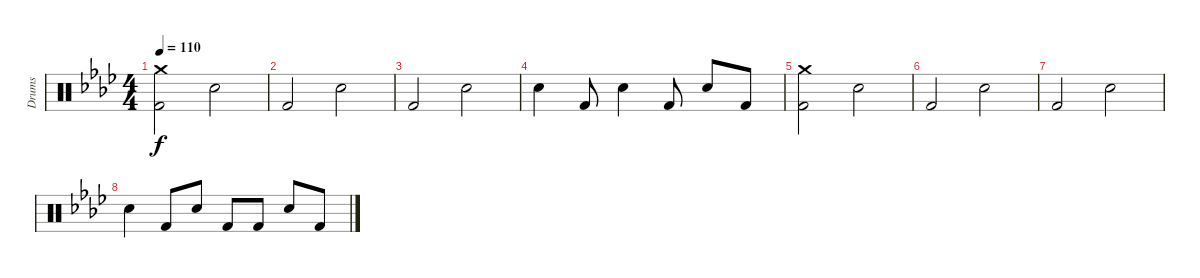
\track ("Drums" "Drums") {instrument percussion}
\staff {score}
\articulation defaults
\ts (4 4)
\tempo 110
\clef neutral
\ks fminor
("Crash medium (hit)" "Kick (hit) 2").2{dy f volume 3} "Snare (hit) 2".2 |
"Kick (hit) 2".2 "Snare (hit) 2".2 |
"Kick (hit) 2".2 "Snare (hit) 2".2 |
"Snare (hit) 2".4 "Kick (hit) 2".8 "Snare (hit) 2".4 "Kick (hit) 2".8 "Snare (hit) 2".8 "Kick (hit) 2".8 |
("Crash medium (hit)" "Kick (hit) 2").2{volume 0} "Snare (hit) 2".2 |
"Kick (hit) 2".2 "Snare (hit) 2".2 |
"Kick (hit) 2".2 "Snare (hit) 2".2 |
"Snare (hit) 2".4 "Kick (hit) 2".8 "Snare (hit) 2".8 "Kick (hit) 2".8 "Kick (hit) 2".8 "Snare (hit) 2".8 "Kick (hit) 2".8
